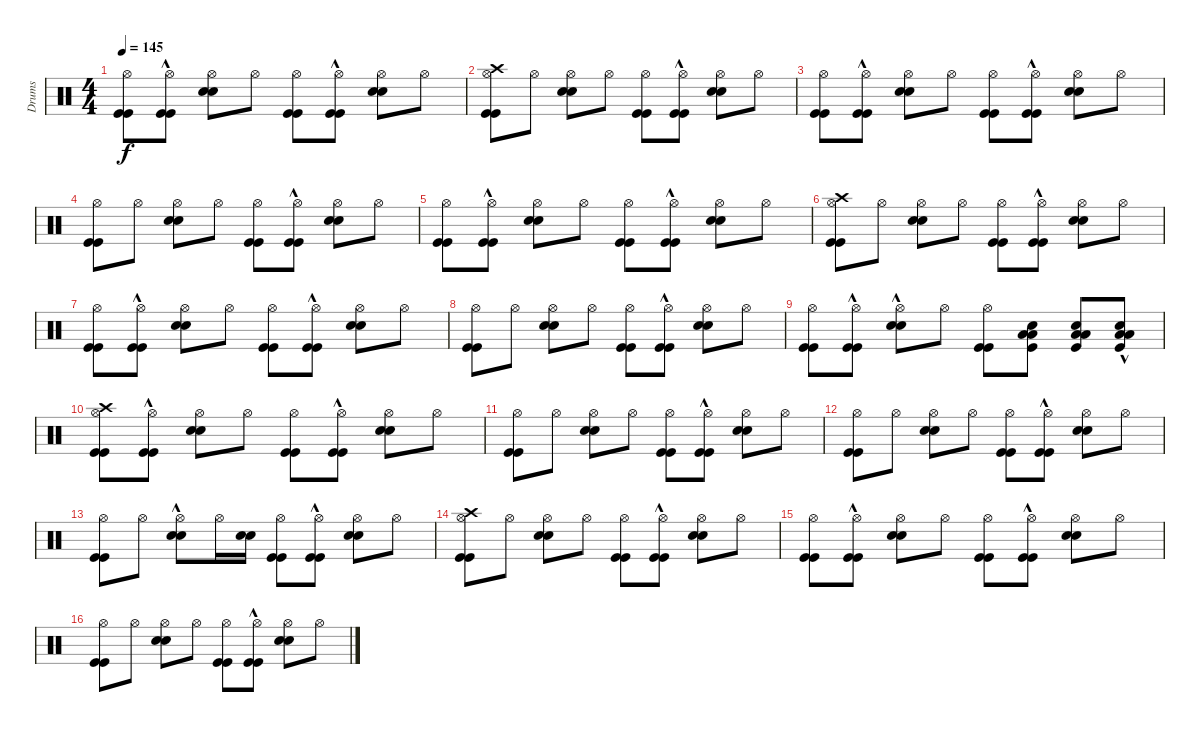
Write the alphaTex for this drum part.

\track ("Drums" "Drums") {instrument percussion}
\staff {score}
\articulation defaults
\ts (4 4)
\tempo 145
\clef neutral
\ks c
("Kick (hit)" "Kick (hit)" "Hi-Hat (open)").8{dy f} ("Kick (hit)"{hac} "Kick (hit)"{hac} "Hi-Hat (open)").8 ("Snare (hit) 2" "Snare (hit) 2" "Hi-Hat (open)").8 "Hi-Hat (open)".8 ("Kick (hit)" "Kick (hit)" "Hi-Hat (open)").8 ("Kick (hit)"{hac} "Kick (hit)"{hac} "Hi-Hat (open)").8 ("Snare (hit) 2" "Snare (hit) 2" "Hi-Hat (open)").8 "Hi-Hat (open)".8 |
("Kick (hit)" "Kick (hit)" "Hi-Hat (open)" "Crash high (hit)").8 "Hi-Hat (open)".8 ("Snare (hit) 2" "Snare (hit) 2" "Hi-Hat (open)").8 "Hi-Hat (open)".8 ("Kick (hit)" "Kick (hit)" "Hi-Hat (open)").8 ("Kick (hit)"{hac} "Kick (hit)"{hac} "Hi-Hat (open)").8 ("Snare (hit) 2" "Snare (hit) 2" "Hi-Hat (open)").8 "Hi-Hat (open)".8 |
("Kick (hit)" "Kick (hit)" "Hi-Hat (open)").8 ("Kick (hit)"{hac} "Kick (hit)"{hac} "Hi-Hat (open)").8 ("Snare (hit) 2" "Snare (hit) 2" "Hi-Hat (open)").8 "Hi-Hat (open)".8 ("Kick (hit)" "Kick (hit)" "Hi-Hat (open)").8 ("Kick (hit)"{hac} "Kick (hit)"{hac} "Hi-Hat (open)").8 ("Snare (hit) 2" "Snare (hit) 2" "Hi-Hat (open)").8 "Hi-Hat (open)".8 |
("Kick (hit)" "Kick (hit)" "Hi-Hat (open)").8 "Hi-Hat (open)".8 ("Snare (hit) 2" "Snare (hit) 2" "Hi-Hat (open)").8 "Hi-Hat (open)".8 ("Kick (hit)" "Kick (hit)" "Hi-Hat (open)").8 ("Kick (hit)"{hac} "Kick (hit)"{hac} "Hi-Hat (open)").8 ("Snare (hit) 2" "Snare (hit) 2" "Hi-Hat (open)").8 "Hi-Hat (open)".8 |
("Kick (hit)" "Kick (hit)" "Hi-Hat (open)").8 ("Kick (hit)"{hac} "Kick (hit)"{hac} "Hi-Hat (open)").8 ("Snare (hit) 2" "Snare (hit) 2" "Hi-Hat (open)").8 "Hi-Hat (open)".8 ("Kick (hit)" "Kick (hit)" "Hi-Hat (open)").8 ("Kick (hit)"{hac} "Kick (hit)"{hac} "Hi-Hat (open)").8 ("Snare (hit) 2" "Snare (hit) 2" "Hi-Hat (open)").8 "Hi-Hat (open)".8 |
("Kick (hit)" "Kick (hit)" "Hi-Hat (open)" "Crash high (hit)").8 "Hi-Hat (open)".8 ("Snare (hit) 2" "Snare (hit) 2" "Hi-Hat (open)").8 "Hi-Hat (open)".8 ("Kick (hit)" "Kick (hit)" "Hi-Hat (open)").8 ("Kick (hit)"{hac} "Kick (hit)"{hac} "Hi-Hat (open)").8 ("Snare (hit) 2" "Snare (hit) 2" "Hi-Hat (open)").8 "Hi-Hat (open)".8 |
("Kick (hit)" "Kick (hit)" "Hi-Hat (open)").8 ("Kick (hit)"{hac} "Kick (hit)"{hac} "Hi-Hat (open)").8 ("Snare (hit) 2" "Snare (hit) 2" "Hi-Hat (open)").8 "Hi-Hat (open)".8 ("Kick (hit)" "Kick (hit)" "Hi-Hat (open)").8 ("Kick (hit)"{hac} "Kick (hit)"{hac} "Hi-Hat (open)").8 ("Snare (hit) 2" "Snare (hit) 2" "Hi-Hat (open)").8 "Hi-Hat (open)".8 |
("Kick (hit)" "Kick (hit)" "Hi-Hat (open)").8 "Hi-Hat (open)".8 ("Snare (hit) 2" "Snare (hit) 2" "Hi-Hat (open)").8 "Hi-Hat (open)".8 ("Kick (hit)" "Kick (hit)" "Hi-Hat (open)").8 ("Kick (hit)"{hac} "Kick (hit)"{hac} "Hi-Hat (open)").8 ("Snare (hit) 2" "Snare (hit) 2" "Hi-Hat (open)").8 "Hi-Hat (open)".8 |
("Kick (hit)" "Kick (hit)" "Hi-Hat (open)").8 ("Kick (hit)"{hac} "Kick (hit)"{hac} "Hi-Hat (open)").8 ("Snare (hit) 2"{hac} "Snare (hit) 2"{hac} "Hi-Hat (open)").8 "Hi-Hat (open)".8 ("Kick (hit)" "Kick (hit)" "Hi-Hat (open)").8 ("Kick (hit)" "Snare (hit) 2" "Low Floor Tom (hit)" "Low Floor Tom (hit)").8 ("Kick (hit)" "Snare (hit) 2" "Low Floor Tom (hit)" "Low Floor Tom (hit)").8 ("Kick (hit)" "Snare (hit) 2"{hac} "Low Floor Tom (hit)" "Low Floor Tom (hit)").8 |
("Kick (hit)" "Kick (hit)" "Hi-Hat (open)" "Crash high (hit)").8 ("Kick (hit)"{hac} "Kick (hit)"{hac} "Hi-Hat (open)").8 ("Snare (hit) 2" "Snare (hit) 2" "Hi-Hat (open)").8 "Hi-Hat (open)".8 ("Kick (hit)" "Kick (hit)" "Hi-Hat (open)").8 ("Kick (hit)"{hac} "Kick (hit)"{hac} "Hi-Hat (open)").8 ("Snare (hit) 2" "Snare (hit) 2" "Hi-Hat (open)").8 "Hi-Hat (open)".8 |
("Kick (hit)" "Kick (hit)" "Hi-Hat (open)").8 "Hi-Hat (open)".8 ("Snare (hit) 2" "Snare (hit) 2" "Hi-Hat (open)").8 "Hi-Hat (open)".8 ("Kick (hit)" "Kick (hit)" "Hi-Hat (open)").8 ("Kick (hit)"{hac} "Kick (hit)"{hac} "Hi-Hat (open)").8 ("Snare (hit) 2" "Snare (hit) 2" "Hi-Hat (open)").8 "Hi-Hat (open)".8 |
("Kick (hit)" "Kick (hit)" "Hi-Hat (open)").8 "Hi-Hat (open)".8 ("Snare (hit) 2" "Snare (hit) 2" "Hi-Hat (open)").8 "Hi-Hat (open)".8 ("Kick (hit)" "Kick (hit)" "Hi-Hat (open)").8 ("Kick (hit)"{hac} "Kick (hit)"{hac} "Hi-Hat (open)").8 ("Snare (hit) 2" "Snare (hit) 2" "Hi-Hat (open)").8 "Hi-Hat (open)".8 |
("Kick (hit)" "Kick (hit)" "Hi-Hat (open)").8 "Hi-Hat (open)".8 ("Snare (hit) 2"{hac} "Snare (hit) 2"{hac} "Hi-Hat (open)").8 "Hi-Hat (open)".16 ("Snare (hit) 2" "Snare (hit) 2").16 ("Kick (hit)" "Kick (hit)" "Hi-Hat (open)").8 ("Kick (hit)"{hac} "Kick (hit)"{hac} "Hi-Hat (open)").8 ("Snare (hit) 2" "Snare (hit) 2" "Hi-Hat (open)").8 "Hi-Hat (open)".8 |
("Kick (hit)" "Kick (hit)" "Hi-Hat (open)" "Crash high (hit)").8 "Hi-Hat (open)".8 ("Snare (hit) 2" "Snare (hit) 2" "Hi-Hat (open)").8 "Hi-Hat (open)".8 ("Kick (hit)" "Kick (hit)" "Hi-Hat (open)").8 ("Kick (hit)"{hac} "Kick (hit)"{hac} "Hi-Hat (open)").8 ("Snare (hit) 2" "Snare (hit) 2" "Hi-Hat (open)").8 "Hi-Hat (open)".8 |
("Kick (hit)" "Kick (hit)" "Hi-Hat (open)").8 ("Kick (hit)"{hac} "Kick (hit)"{hac} "Hi-Hat (open)").8 ("Snare (hit) 2" "Snare (hit) 2" "Hi-Hat (open)").8 "Hi-Hat (open)".8 ("Kick (hit)" "Kick (hit)" "Hi-Hat (open)").8 ("Kick (hit)"{hac} "Kick (hit)"{hac} "Hi-Hat (open)").8 ("Snare (hit) 2" "Snare (hit) 2" "Hi-Hat (open)").8 "Hi-Hat (open)".8 |
("Kick (hit)" "Kick (hit)" "Hi-Hat (open)").8 "Hi-Hat (open)".8 ("Snare (hit) 2" "Snare (hit) 2" "Hi-Hat (open)").8 "Hi-Hat (open)".8 ("Kick (hit)" "Kick (hit)" "Hi-Hat (open)").8 ("Kick (hit)"{hac} "Kick (hit)"{hac} "Hi-Hat (open)").8 ("Snare (hit) 2" "Snare (hit) 2" "Hi-Hat (open)").8 "Hi-Hat (open)".8
